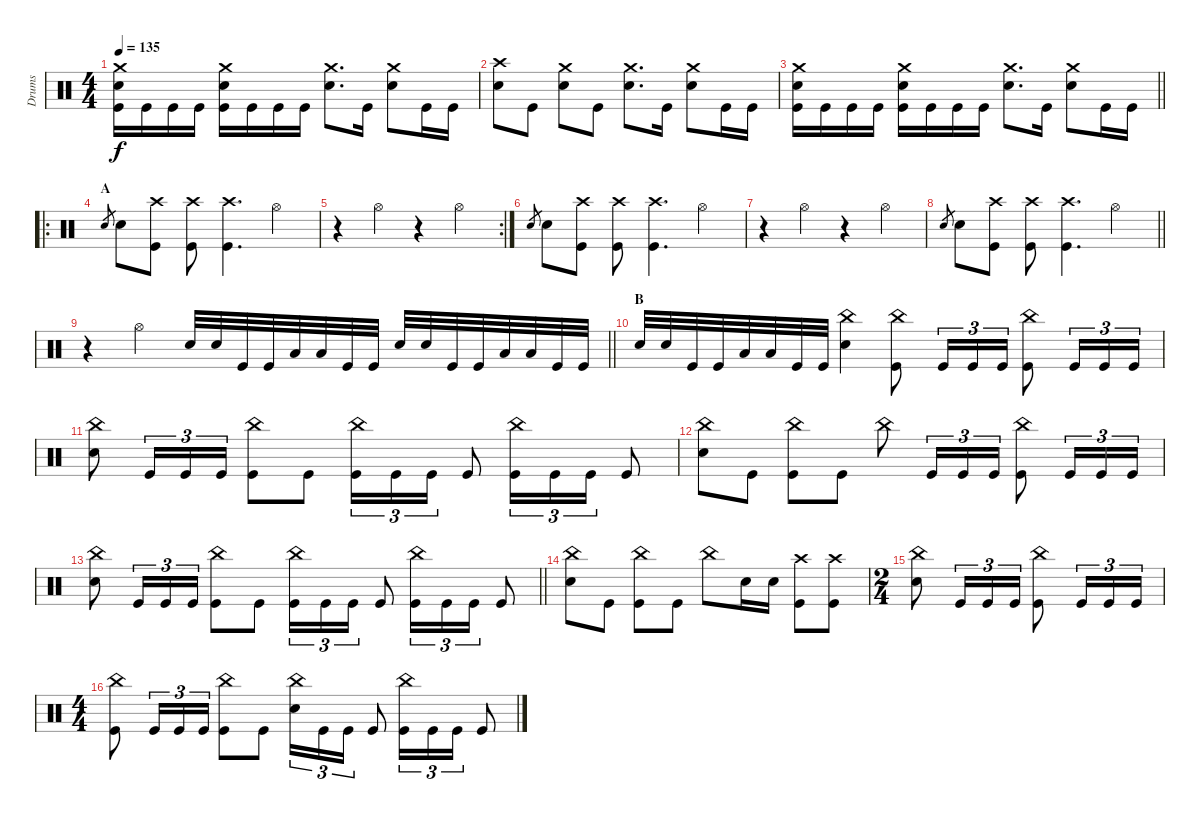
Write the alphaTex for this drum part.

\track ("Drums" "Drums") {instrument percussion}
\staff {score}
\articulation defaults
\ts (4 4)
\tempo 135
\clef neutral
\ks c
("Crash medium (hit)" "Electric Snare (hit)" "Kick (hit)").16{dy f} "Kick (hit)".16 "Kick (hit)".16 "Kick (hit)".16 ("Crash medium (hit)" "Electric Snare (hit)" "Kick (hit)").16 "Kick (hit)".16 "Kick (hit)".16 "Kick (hit)".16 ("Crash medium (hit)" "Electric Snare (hit)").8{d} "Kick (hit)".16 ("Crash medium (hit)" "Electric Snare (hit)").8 "Kick (hit)".16 "Kick (hit)".16 |
("Crash high (hit)" "Electric Snare (hit)").8 "Kick (hit)".8 ("Crash medium (hit)" "Electric Snare (hit)").8 "Kick (hit)".8 ("Crash medium (hit)" "Electric Snare (hit)").8{d} "Kick (hit)".16 ("Crash medium (hit)" "Electric Snare (hit)").8 "Kick (hit)".16 "Kick (hit)".16 |
\barLineRight lightlight
("Crash medium (hit)" "Electric Snare (hit)" "Kick (hit)").16 "Kick (hit)".16 "Kick (hit)".16 "Kick (hit)".16 ("Crash medium (hit)" "Electric Snare (hit)" "Kick (hit)").16 "Kick (hit)".16 "Kick (hit)".16 "Kick (hit)".16 ("Crash medium (hit)" "Electric Snare (hit)").8{d} "Kick (hit)".16 ("Crash medium (hit)" "Electric Snare (hit)").8 "Kick (hit)".16 "Kick (hit)".16 |
\ro
\section ("" "A")
"Electric Snare (hit)".8{gr} "Electric Snare (hit)".8 ("Crash high (hit)" "Kick (hit)").8 ("Crash high (hit)" "Kick (hit)").8 ("Crash high (hit)" "Kick (hit)").4{d} "Hi-Hat (open)".4 |
\rc 2
r.4 "Hi-Hat (open)".4 r.4 "Hi-Hat (open)".4 |
"Electric Snare (hit)".8{gr} "Electric Snare (hit)".8 ("Crash high (hit)" "Kick (hit)").8 ("Crash high (hit)" "Kick (hit)").8 ("Crash high (hit)" "Kick (hit)").4{d} "Hi-Hat (open)".4 |
r.4 "Hi-Hat (open)".4 r.4 "Hi-Hat (open)".4 |
\barLineRight lightlight "Electric Snare (hit)".8{gr} "Electric Snare (hit)".8
("Crash high (hit)" "Kick (hit)").8 ("Crash high (hit)" "Kick (hit)").8 ("Crash high (hit)" "Kick (hit)").4{d} "Hi-Hat (open)".4 |
\section ("" "")
\barLineRight lightlight
r.4 "Hi-Hat (open)".4 "Electric Snare (hit)".32 "Electric Snare (hit)".32 "Kick (hit)".32 "Kick (hit)".32 "Low Tom (hit)".32 "Low Tom (hit)".32 "Kick (hit)".32 "Kick (hit)".32 "Electric Snare (hit)".32 "Electric Snare (hit)".32 "Kick (hit)".32 "Kick (hit)".32 "Low Tom (hit)".32 "Low Tom (hit)".32 "Kick (hit)".32 "Kick (hit)".32 |
\section ("" "B")
"Electric Snare (hit)".32 "Electric Snare (hit)".32 "Kick (hit)".32 "Kick (hit)".32 "Low Tom (hit)".32 "Low Tom (hit)".32 "Kick (hit)".32 "Kick (hit)".32 ("China (hit)" "Electric Snare (hit)").4 ("China (hit)" "Kick (hit)").8 "Kick (hit)".16{tu (3 2)} "Kick (hit)".16{tu (3 2)} "Kick (hit)".16{tu (3 2)} ("China (hit)" "Kick (hit)").8 "Kick (hit)".16{tu (3 2)} "Kick (hit)".16{tu (3 2)} "Kick (hit)".16{tu (3 2)} |
("China (hit)" "Electric Snare (hit)").8 "Kick (hit)".16{tu (3 2)} "Kick (hit)".16{tu (3 2)} "Kick (hit)".16{tu (3 2)} ("China (hit)" "Kick (hit)").8 "Kick (hit)".8 ("China (hit)" "Kick (hit)").16{tu (3 2)} "Kick (hit)".16{tu (3 2)} "Kick (hit)".16{tu (3 2)} "Kick (hit)".8 ("China (hit)" "Kick (hit)").16{tu (3 2)} "Kick (hit)".16{tu (3 2)} "Kick (hit)".16{tu (3 2)} "Kick (hit)".8 |
("China (hit)" "Electric Snare (hit)").8 "Kick (hit)".8 ("China (hit)" "Kick (hit)").8 "Kick (hit)".8 "China (hit)".8 "Kick (hit)".16{tu (3 2)} "Kick (hit)".16{tu (3 2)} "Kick (hit)".16{tu (3 2)} ("China (hit)" "Kick (hit)").8 "Kick (hit)".16{tu (3 2)} "Kick (hit)".16{tu (3 2)} "Kick (hit)".16{tu (3 2)} |
\barLineRight lightlight
("China (hit)" "Electric Snare (hit)").8 "Kick (hit)".16{tu (3 2)} "Kick (hit)".16{tu (3 2)} "Kick (hit)".16{tu (3 2)} ("China (hit)" "Kick (hit)").8 "Kick (hit)".8 ("China (hit)" "Kick (hit)").16{tu (3 2)} "Kick (hit)".16{tu (3 2)} "Kick (hit)".16{tu (3 2)} "Kick (hit)".8 ("China (hit)" "Kick (hit)").16{tu (3 2)} "Kick (hit)".16{tu (3 2)} "Kick (hit)".16{tu (3 2)} "Kick (hit)".8 |
\section ("" "")
("China (hit)" "Electric Snare (hit)").8 "Kick (hit)".8 ("China (hit)" "Kick (hit)").8 "Kick (hit)".8 "China (hit)".8 "Electric Snare (hit)".16 "Electric Snare (hit)".16 ("Crash high (hit)" "Kick (hit)").8 ("Crash high (hit)" "Kick (hit)").8 |
\ts (2 4)
("China (hit)" "Electric Snare (hit)").8 "Kick (hit)".16{tu (3 2)} "Kick (hit)".16{tu (3 2)} "Kick (hit)".16{tu (3 2)} ("China (hit)" "Kick (hit)").8 "Kick (hit)".16{tu (3 2)} "Kick (hit)".16{tu (3 2)} "Kick (hit)".16{tu (3 2)} |
\ts (4 4)
("China (hit)" "Kick (hit)").8 "Kick (hit)".16{tu (3 2)} "Kick (hit)".16{tu (3 2)} "Kick (hit)".16{tu (3 2)} ("China (hit)" "Kick (hit)").8 "Kick (hit)".8 ("China (hit)" "Electric Snare (hit)").16{tu (3 2)} "Kick (hit)".16{tu (3 2)} "Kick (hit)".16{tu (3 2)} "Kick (hit)".8 ("China (hit)" "Kick (hit)").16{tu (3 2)} "Kick (hit)".16{tu (3 2)} "Kick (hit)".16{tu (3 2)} "Kick (hit)".8
